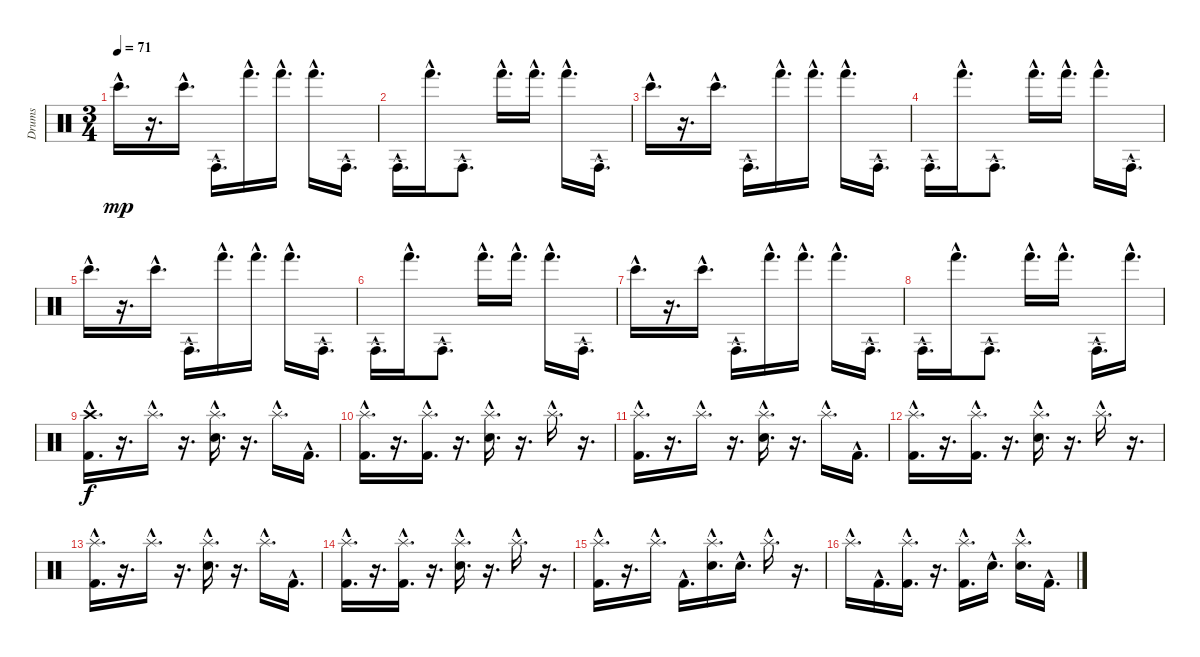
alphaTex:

\track ("Drums" "Drums") {instrument percussion}
\staff {score}
\articulation defaults
\ts (3 4)
\tempo 71
\clef neutral
\ks c "Bongo High (hit)"{hac}.16{d dy mp}
r.16{d} "Bongo High (hit)"{hac}.16{d} "Conga high (hit)"{hac}.16{d} "Hand (hit)"{hac}.16{d} "Hand (hit)"{hac}.16{d} "Hand (hit)"{hac}.16{d} "Conga high (hit)"{hac}.16{d} |
"Conga high (hit)"{hac}.16{d} "Hand (hit)"{hac}.16{d} "Conga high (hit)"{hac}.8{d} "Hand (hit)"{hac}.16{d} "Hand (hit)"{hac}.16{d} "Hand (hit)"{hac}.16{d} "Conga high (hit)"{hac}.16{d} |
"Bongo High (hit)"{hac}.16{d} r.16{d} "Bongo High (hit)"{hac}.16{d} "Conga high (hit)"{hac}.16{d} "Hand (hit)"{hac}.16{d} "Hand (hit)"{hac}.16{d} "Hand (hit)"{hac}.16{d} "Conga high (hit)"{hac}.16{d} |
"Conga high (hit)"{hac}.16{d} "Hand (hit)"{hac}.16{d} "Conga high (hit)"{hac}.8{d} "Hand (hit)"{hac}.16{d} "Hand (hit)"{hac}.16{d} "Hand (hit)"{hac}.16{d} "Conga high (hit)"{hac}.16{d} |
"Bongo High (hit)"{hac}.16{d} r.16{d} "Bongo High (hit)"{hac}.16{d} "Conga high (hit)"{hac}.16{d} "Hand (hit)"{hac}.16{d} "Hand (hit)"{hac}.16{d} "Hand (hit)"{hac}.16{d} "Conga high (hit)"{hac}.16{d} |
"Conga high (hit)"{hac}.16{d} "Hand (hit)"{hac}.16{d} "Conga high (hit)"{hac}.8{d} "Hand (hit)"{hac}.16{d} "Hand (hit)"{hac}.16{d} "Hand (hit)"{hac}.16{d} "Conga high (hit)"{hac}.16{d} |
"Bongo High (hit)"{hac}.16{d} r.16{d} "Bongo High (hit)"{hac}.16{d} "Conga high (hit)"{hac}.16{d} "Hand (hit)"{hac}.16{d} "Hand (hit)"{hac}.16{d} "Hand (hit)"{hac}.16{d} "Conga high (hit)"{hac}.16{d} |
"Conga high (hit)"{hac}.16{d} "Hand (hit)"{hac}.16{d} "Conga high (hit)"{hac}.8{d} "Hand (hit)"{hac}.16{d} "Hand (hit)"{hac}.16{d} "Conga high (hit)"{hac}.16{d} "Hand (hit)"{hac}.16{d} |
("Crash high (hit)"{hac} "Kick (hit) 2"{hac}).16{d dy f} r.16{d} "Splash (hit)"{hac}.16{d} r.16{d} ("Splash (hit)"{hac} "Snare (hit) 2"{hac}).16{d} r.16{d} "Splash (hit)"{hac}.16{d} "Kick (hit) 2"{hac}.16{d} |
("Splash (hit)"{hac} "Kick (hit) 2"{hac}).16{d} r.16{d} ("Splash (hit)"{hac} "Kick (hit) 2"{hac}).16{d} r.16{d} ("Splash (hit)"{hac} "Snare (hit) 2"{hac}).16{d} r.16{d} "Splash (hit)"{hac}.16{d} r.16{d} |
("Splash (hit)"{hac} "Kick (hit) 2"{hac}).16{d} r.16{d} "Splash (hit)"{hac}.16{d} r.16{d} ("Splash (hit)"{hac} "Snare (hit) 2"{hac}).16{d} r.16{d} "Splash (hit)"{hac}.16{d} "Kick (hit) 2"{hac}.16{d} |
("Splash (hit)"{hac} "Kick (hit) 2"{hac}).16{d} r.16{d} ("Splash (hit)"{hac} "Kick (hit) 2"{hac}).16{d} r.16{d} ("Splash (hit)"{hac} "Snare (hit) 2"{hac}).16{d} r.16{d} "Splash (hit)"{hac}.16{d} r.16{d} |
("Splash (hit)"{hac} "Kick (hit) 2"{hac}).16{d} r.16{d} "Splash (hit)"{hac}.16{d} r.16{d} ("Splash (hit)"{hac} "Snare (hit) 2"{hac}).16{d} r.16{d} "Splash (hit)"{hac}.16{d} "Kick (hit) 2"{hac}.16{d} |
("Splash (hit)"{hac} "Kick (hit) 2"{hac}).16{d} r.16{d} ("Splash (hit)"{hac} "Kick (hit) 2"{hac}).16{d} r.16{d} ("Splash (hit)"{hac} "Snare (hit) 2"{hac}).16{d} r.16{d} "Splash (hit)"{hac}.16{d} r.16{d} |
("Splash (hit)"{hac} "Kick (hit) 2"{hac}).16{d} r.16{d} "Splash (hit)"{hac}.16{d} "Kick (hit) 2"{hac}.16{d} ("Splash (hit)"{hac} "Snare (hit) 2"{hac}).16{d} "Snare (hit) 2"{hac}.16{d} "Splash (hit)"{hac}.16{d} r.16{d} |
"Splash (hit)"{hac}.16{d} "Kick (hit) 2"{hac}.16{d} ("Splash (hit)"{hac} "Kick (hit) 2"{hac}).16{d} r.16{d} ("Splash (hit)"{hac} "Kick (hit) 2"{hac}).16{d} "Snare (hit) 2"{hac}.16{d} ("Splash (hit)"{hac} "Snare (hit) 2"{hac}).16{d} "Kick (hit) 2"{hac}.16{d}
